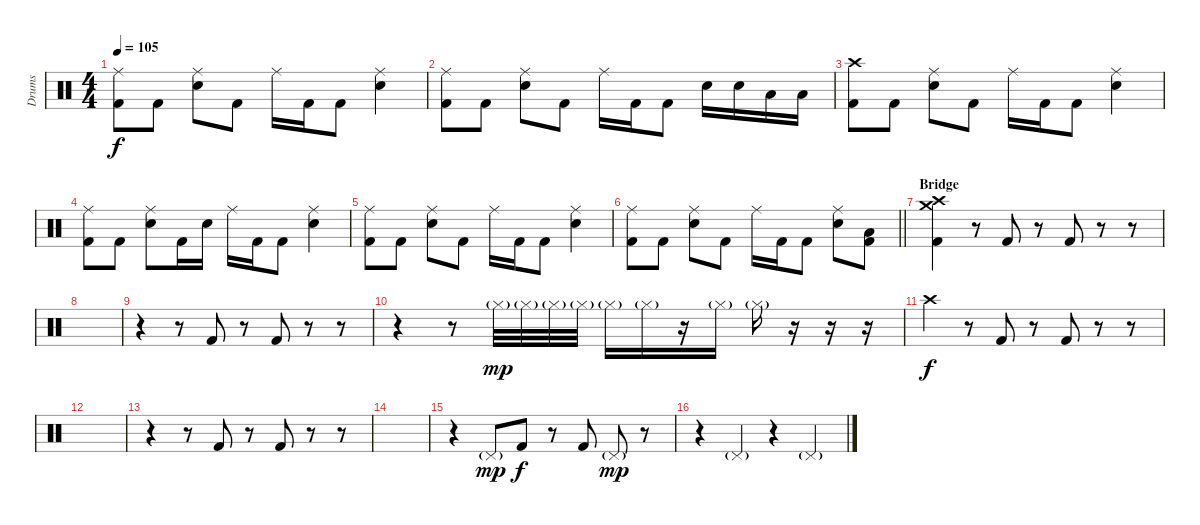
\track ("Drums" "Drums") {instrument percussion}
\staff {score}
\articulation defaults
\ts (4 4)
\tempo 105
\clef neutral
\ks c
("Ride (middle)" "Kick (hit) 2").8{dy f} "Kick (hit) 2".8 ("Ride (middle)" "Electric Snare (hit)").8 "Kick (hit) 2".8 "Ride (middle)".16 "Kick (hit) 2".16 "Kick (hit) 2".8 ("Ride (middle)" "Electric Snare (hit)").4 |
("Ride (middle)" "Kick (hit) 2").8 "Kick (hit) 2".8 ("Ride (middle)" "Electric Snare (hit)").8 "Kick (hit) 2".8 "Ride (middle)".16 "Kick (hit) 2".16 "Kick (hit) 2".8 "Electric Snare (hit)".16 "Electric Snare (hit)".16 "Low Tom (hit)".16 "Low Tom (hit)".16 |
("Crash high (hit)" "Kick (hit) 2").8 "Kick (hit) 2".8 ("Ride (middle)" "Electric Snare (hit)").8 "Kick (hit) 2".8 "Ride (middle)".16 "Kick (hit) 2".16 "Kick (hit) 2".8 ("Ride (middle)" "Electric Snare (hit)").4 |
("Ride (middle)" "Kick (hit) 2").8 "Kick (hit) 2".8 ("Ride (middle)" "Electric Snare (hit)").8 "Kick (hit) 2".16 "Electric Snare (hit)".16 "Ride (middle)".16 "Kick (hit) 2".16 "Kick (hit) 2".8 ("Ride (middle)" "Electric Snare (hit)").4 |
("Ride (middle)" "Kick (hit) 2").8 "Kick (hit) 2".8 ("Ride (middle)" "Electric Snare (hit)").8 "Kick (hit) 2".8 "Ride (middle)".16 "Kick (hit) 2".16 "Kick (hit) 2".8 ("Ride (middle)" "Electric Snare (hit)").4 |
\barLineRight lightlight
("Ride (middle)" "Kick (hit) 2").8 "Kick (hit) 2".8 ("Ride (middle)" "Electric Snare (hit)").8 "Kick (hit) 2".8 "Ride (middle)".16 "Kick (hit) 2".16 "Kick (hit) 2".8 ("Ride (middle)" "Electric Snare (hit)").8 ("Low Floor Tom (hit)" "Kick (hit) 2").8 |
\section ("" "Bridge")
("Crash high (hit)" "Crash medium (hit)" "Kick (hit) 2").4 r.8 "Kick (hit) 2".8 r.8 "Kick (hit) 2".8 r.8 r.8 |
|
r.4 r.8 "Kick (hit) 2".8 r.8 "Kick (hit) 2".8 r.8 r.8 |
r.4 r.8 "Hi-Hat (closed)"{g}.32{dy mp} "Hi-Hat (closed)"{g}.32 "Hi-Hat (closed)"{g}.32 "Hi-Hat (closed)"{g}.32 "Hi-Hat (closed)"{g}.16 "Hi-Hat (closed)"{g}.16 r.16 "Hi-Hat (closed)"{g}.16 "Hi-Hat (closed)"{g}.16 r.16 r.16 r.16 |
"Crash high (hit)".4{dy f} r.8 "Kick (hit) 2".8 r.8 "Kick (hit) 2".8 r.8 r.8 |
|
r.4 r.8 "Kick (hit) 2".8 r.8 "Kick (hit) 2".8 r.8 r.8 |
|
r.4 "Pedal Hi-Hat (hit)"{g}.8{dy mp} "Kick (hit) 2".8{dy f} r.8 "Kick (hit) 2".8 "Pedal Hi-Hat (hit)"{g}.8{dy mp} r.8 |
r.4 "Pedal Hi-Hat (hit)"{g}.4 r.4 "Pedal Hi-Hat (hit)"{g}.4
